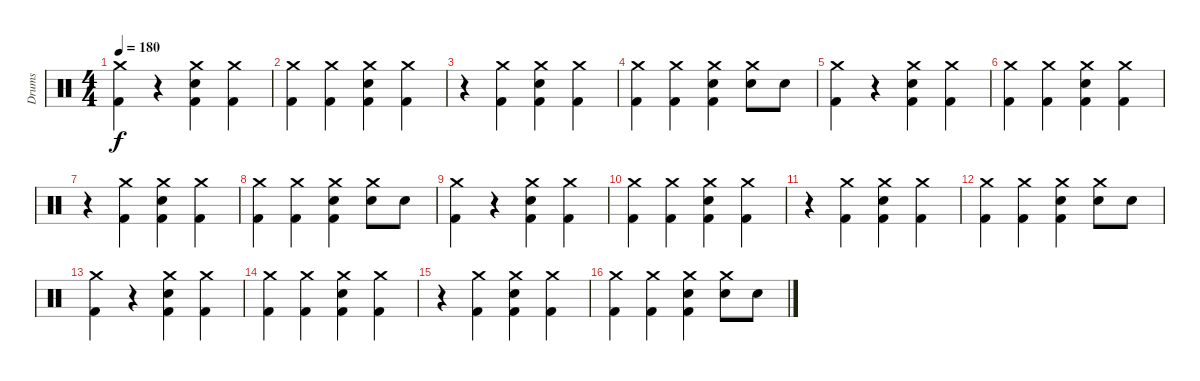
\track ("Drums" "Drums") {instrument percussion}
\staff {score}
\articulation defaults
\ts (4 4)
\tempo 180
\clef neutral
\ks c
("Crash medium (hit)" "Kick (hit) 2").4{dy f} r.4 ("Crash medium (hit)" "Snare (hit) 2" "Kick (hit) 2").4 ("Crash medium (hit)" "Kick (hit) 2").4 |
("Crash medium (hit)" "Kick (hit) 2").4 ("Crash medium (hit)" "Kick (hit) 2").4 ("Crash medium (hit)" "Snare (hit) 2" "Kick (hit) 2").4 ("Crash medium (hit)" "Kick (hit) 2").4 |
r.4 ("Crash medium (hit)" "Kick (hit) 2").4 ("Crash medium (hit)" "Snare (hit) 2" "Kick (hit) 2").4 ("Crash medium (hit)" "Kick (hit) 2").4 |
("Crash medium (hit)" "Kick (hit) 2").4 ("Crash medium (hit)" "Kick (hit) 2").4 ("Crash medium (hit)" "Snare (hit) 2" "Kick (hit) 2").4 ("Crash medium (hit)" "Snare (hit) 2").8 "Snare (hit) 2".8 |
("Crash medium (hit)" "Kick (hit) 2").4 r.4 ("Crash medium (hit)" "Snare (hit) 2" "Kick (hit) 2").4 ("Crash medium (hit)" "Kick (hit) 2").4 |
("Crash medium (hit)" "Kick (hit) 2").4 ("Crash medium (hit)" "Kick (hit) 2").4 ("Crash medium (hit)" "Snare (hit) 2" "Kick (hit) 2").4 ("Crash medium (hit)" "Kick (hit) 2").4 |
r.4 ("Crash medium (hit)" "Kick (hit) 2").4 ("Crash medium (hit)" "Snare (hit) 2" "Kick (hit) 2").4 ("Crash medium (hit)" "Kick (hit) 2").4 |
("Crash medium (hit)" "Kick (hit) 2").4 ("Crash medium (hit)" "Kick (hit) 2").4 ("Crash medium (hit)" "Snare (hit) 2" "Kick (hit) 2").4 ("Crash medium (hit)" "Snare (hit) 2").8 "Snare (hit) 2".8 |
("Crash medium (hit)" "Kick (hit) 2").4 r.4 ("Crash medium (hit)" "Snare (hit) 2" "Kick (hit) 2").4 ("Crash medium (hit)" "Kick (hit) 2").4 |
("Crash medium (hit)" "Kick (hit) 2").4 ("Crash medium (hit)" "Kick (hit) 2").4 ("Crash medium (hit)" "Snare (hit) 2" "Kick (hit) 2").4 ("Crash medium (hit)" "Kick (hit) 2").4 |
r.4 ("Crash medium (hit)" "Kick (hit) 2").4 ("Crash medium (hit)" "Snare (hit) 2" "Kick (hit) 2").4 ("Crash medium (hit)" "Kick (hit) 2").4 |
("Crash medium (hit)" "Kick (hit) 2").4 ("Crash medium (hit)" "Kick (hit) 2").4 ("Crash medium (hit)" "Snare (hit) 2" "Kick (hit) 2").4 ("Crash medium (hit)" "Snare (hit) 2").8 "Snare (hit) 2".8 |
("Crash medium (hit)" "Kick (hit) 2").4 r.4 ("Crash medium (hit)" "Snare (hit) 2" "Kick (hit) 2").4 ("Crash medium (hit)" "Kick (hit) 2").4 |
("Crash medium (hit)" "Kick (hit) 2").4 ("Crash medium (hit)" "Kick (hit) 2").4 ("Crash medium (hit)" "Snare (hit) 2" "Kick (hit) 2").4 ("Crash medium (hit)" "Kick (hit) 2").4 |
r.4 ("Crash medium (hit)" "Kick (hit) 2").4 ("Crash medium (hit)" "Snare (hit) 2" "Kick (hit) 2").4 ("Crash medium (hit)" "Kick (hit) 2").4 |
("Crash medium (hit)" "Kick (hit) 2").4 ("Crash medium (hit)" "Kick (hit) 2").4 ("Crash medium (hit)" "Snare (hit) 2" "Kick (hit) 2").4 ("Crash medium (hit)" "Snare (hit) 2").8 "Snare (hit) 2".8
